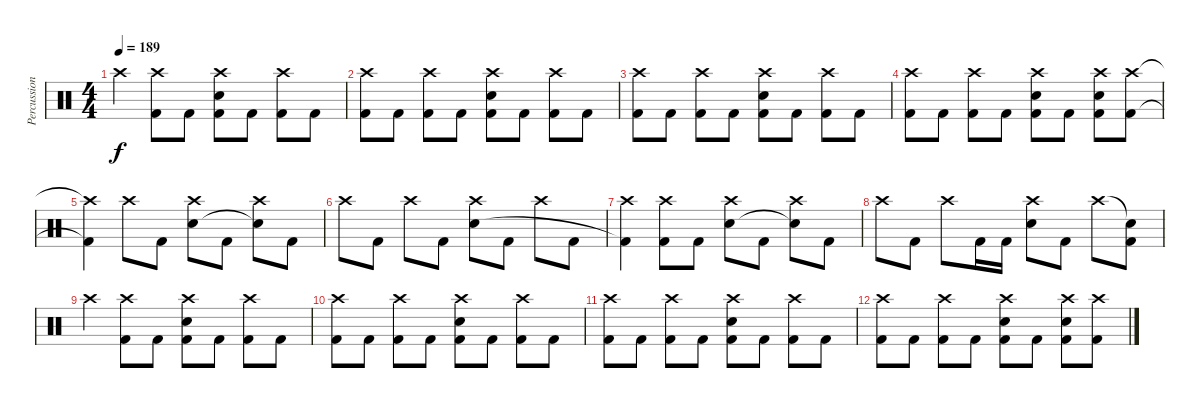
\track ("Percussion" "Percussion") {instrument percussion}
\staff {score}
\articulation defaults
\ts (4 4)
\tempo 189
\clef neutral
\ks c "Crash high (hit)".4{dy f}
("Crash high (hit)" "Kick (hit) 2").8 "Kick (hit) 2".8 ("Crash high (hit)" "Electric Snare (hit)" "Kick (hit) 2").8 "Kick (hit) 2".8 ("Crash high (hit)" "Kick (hit) 2").8 "Kick (hit) 2".8 |
("Crash high (hit)" "Kick (hit) 2").8 "Kick (hit) 2".8 ("Crash high (hit)" "Kick (hit) 2").8 "Kick (hit) 2".8 ("Crash high (hit)" "Electric Snare (hit)" "Kick (hit) 2").8 "Kick (hit) 2".8 ("Crash high (hit)" "Kick (hit) 2").8 "Kick (hit) 2".8 |
("Crash high (hit)" "Kick (hit) 2").8 "Kick (hit) 2".8 ("Crash high (hit)" "Kick (hit) 2").8 "Kick (hit) 2".8 ("Crash high (hit)" "Electric Snare (hit)" "Kick (hit) 2").8 "Kick (hit) 2".8 ("Crash high (hit)" "Kick (hit) 2").8 "Kick (hit) 2".8 |
("Crash high (hit)" "Kick (hit) 2").8 "Kick (hit) 2".8 ("Crash high (hit)" "Kick (hit) 2").8 "Kick (hit) 2".8 ("Crash high (hit)" "Electric Snare (hit)" "Kick (hit) 2").8 "Kick (hit) 2".8 ("Crash high (hit)" "Electric Snare (hit)" "Kick (hit) 2").8 ("Crash high (hit)" "Kick (hit) 2").8 |
("Crash high (hit)"{t} "Kick (hit) 2"{t}).4 "Crash high (hit)".8 "Kick (hit) 2".8 ("Crash high (hit)" "Electric Snare (hit)").8 "Kick (hit) 2".8 ("Crash high (hit)" "Snare (hit)"{t}).8 "Kick (hit) 2".8 |
"Crash high (hit)".8 "Kick (hit) 2".8 "Crash high (hit)".8 "Kick (hit) 2".8 ("Crash high (hit)" "Electric Snare (hit)").8 "Kick (hit) 2".8 "Crash high (hit)".8 "Kick (hit) 2".8 |
("Crash high (hit)" "Kick (hit) 2"{t}).4 ("Crash high (hit)" "Kick (hit) 2").8 "Kick (hit) 2".8 ("Crash high (hit)" "Electric Snare (hit)").8 "Kick (hit) 2".8 ("Crash high (hit)" "Snare (hit)"{t}).8 "Kick (hit) 2".8 |
"Crash high (hit)".8 "Kick (hit) 2".8 "Crash high (hit)".8 "Kick (hit) 2".16 "Kick (hit) 2".16 ("Crash high (hit)" "Electric Snare (hit)").8 "Kick (hit) 2".8 "Crash high (hit)".8 ("Snare (hit)"{t} "Kick (hit) 2").8 |
"Crash high (hit)".4 ("Crash high (hit)" "Kick (hit) 2").8 "Kick (hit) 2".8 ("Crash high (hit)" "Electric Snare (hit)" "Kick (hit) 2").8 "Kick (hit) 2".8 ("Crash high (hit)" "Kick (hit) 2").8 "Kick (hit) 2".8 |
("Crash high (hit)" "Kick (hit) 2").8 "Kick (hit) 2".8 ("Crash high (hit)" "Kick (hit) 2").8 "Kick (hit) 2".8 ("Crash high (hit)" "Electric Snare (hit)" "Kick (hit) 2").8 "Kick (hit) 2".8 ("Crash high (hit)" "Kick (hit) 2").8 "Kick (hit) 2".8 |
("Crash high (hit)" "Kick (hit) 2").8 "Kick (hit) 2".8 ("Crash high (hit)" "Kick (hit) 2").8 "Kick (hit) 2".8 ("Crash high (hit)" "Electric Snare (hit)" "Kick (hit) 2").8 "Kick (hit) 2".8 ("Crash high (hit)" "Kick (hit) 2").8 "Kick (hit) 2".8 |
("Crash high (hit)" "Kick (hit) 2").8 "Kick (hit) 2".8 ("Crash high (hit)" "Kick (hit) 2").8 "Kick (hit) 2".8 ("Crash high (hit)" "Electric Snare (hit)" "Kick (hit) 2").8 "Kick (hit) 2".8 ("Crash high (hit)" "Electric Snare (hit)" "Kick (hit) 2").8 ("Crash high (hit)" "Kick (hit) 2").8
